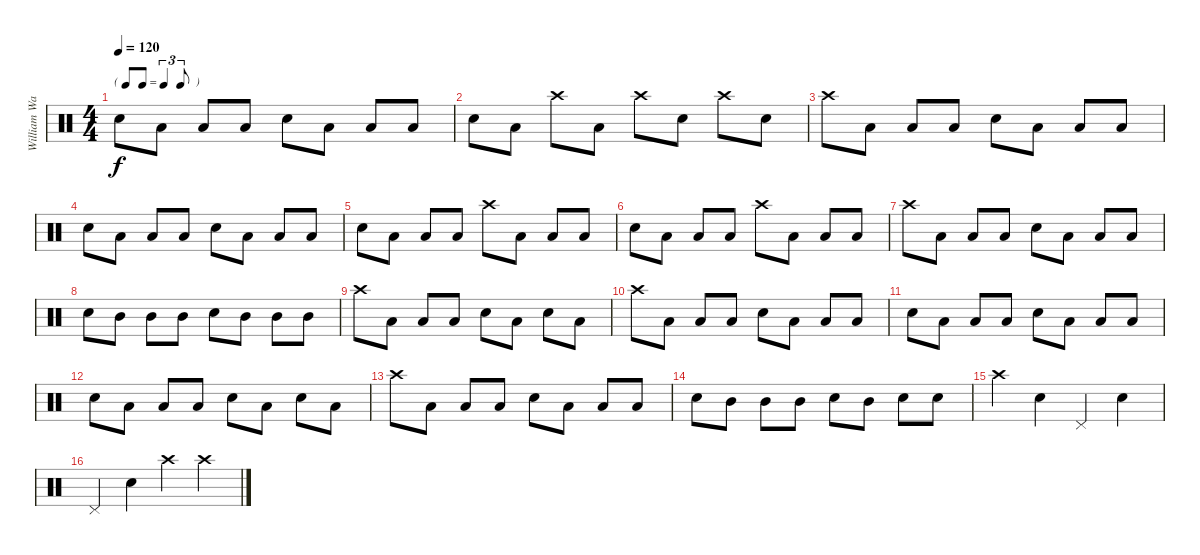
\track ("William Ward" "William Wa") {instrument percussion}
\staff {score}
\articulation defaults
\ts (4 4)
\tf triplet8th
\tempo 120
\clef neutral
\ks c "Snare (hit) 2".8{dy f} "Low Tom (hit)".8 "Low Tom (hit)".8 "Low Tom (hit)".8 "Snare (hit) 2".8 "Low Tom (hit)".8 "Low Tom (hit)".8 "Low Tom (hit)".8
|
"Snare (hit) 2".8 "Low Tom (hit)".8 "Crash high (hit)".8 "Low Tom (hit)".8 "Crash high (hit)".8 "Snare (hit) 2".8 "Crash high (hit)".8 "Snare (hit) 2".8 |
"Crash high (hit)".8 "Low Tom (hit)".8 "Low Tom (hit)".8 "Low Tom (hit)".8 "Snare (hit) 2".8 "Low Tom (hit)".8 "Low Tom (hit)".8 "Low Tom (hit)".8 |
"Snare (hit) 2".8 "Low Tom (hit)".8 "Low Tom (hit)".8 "Low Tom (hit)".8 "Snare (hit) 2".8 "Low Tom (hit)".8 "Low Tom (hit)".8 "Low Tom (hit)".8 |
"Snare (hit) 2".8 "Low Tom (hit)".8 "Low Tom (hit)".8 "Low Tom (hit)".8 "Crash high (hit)".8 "Low Tom (hit)".8 "Low Tom (hit)".8 "Low Tom (hit)".8 |
"Snare (hit) 2".8 "Low Tom (hit)".8 "Low Tom (hit)".8 "Low Tom (hit)".8 "Crash high (hit)".8 "Low Tom (hit)".8 "Low Tom (hit)".8 "Low Tom (hit)".8 |
"Crash high (hit)".8 "Low Tom (hit)".8 "Low Tom (hit)".8 "Low Tom (hit)".8 "Snare (hit) 2".8 "Low Tom (hit)".8 "Low Tom (hit)".8 "Low Tom (hit)".8 |
"Snare (hit) 2".8 "Mid Tom (hit)".8 "Mid Tom (hit)".8 "Mid Tom (hit)".8 "Snare (hit) 2".8 "Mid Tom (hit)".8 "Mid Tom (hit)".8 "Mid Tom (hit)".8 |
"Crash high (hit)".8 "Low Tom (hit)".8 "Low Tom (hit)".8 "Low Tom (hit)".8 "Snare (hit) 2".8 "Low Tom (hit)".8 "Snare (hit) 2".8 "Low Tom (hit)".8 |
"Crash high (hit)".8 "Low Tom (hit)".8 "Low Tom (hit)".8 "Low Tom (hit)".8 "Snare (hit) 2".8 "Low Tom (hit)".8 "Low Tom (hit)".8 "Low Tom (hit)".8 |
"Snare (hit) 2".8 "Low Tom (hit)".8 "Low Tom (hit)".8 "Low Tom (hit)".8 "Snare (hit) 2".8 "Low Tom (hit)".8 "Low Tom (hit)".8 "Low Tom (hit)".8 |
"Snare (hit) 2".8 "Low Tom (hit)".8 "Low Tom (hit)".8 "Low Tom (hit)".8 "Snare (hit) 2".8 "Low Tom (hit)".8 "Snare (hit) 2".8 "Low Tom (hit)".8 |
"Crash high (hit)".8 "Low Tom (hit)".8 "Low Tom (hit)".8 "Low Tom (hit)".8 "Snare (hit) 2".8 "Low Tom (hit)".8 "Low Tom (hit)".8 "Low Tom (hit)".8 |
"Snare (hit) 2".8 "Mid Tom (hit)".8 "Mid Tom (hit)".8 "Mid Tom (hit)".8 "Snare (hit) 2".8 "Mid Tom (hit)".8 "Snare (hit) 2".8 "Snare (hit) 2".8 |
"Crash high (hit)".4 "Snare (hit) 2".4 "Pedal Hi-Hat (hit)".4 "Snare (hit) 2".4 |
"Pedal Hi-Hat (hit)".4 "Snare (hit) 2".4 "Crash high (hit)".4 "Crash high (hit)".4
